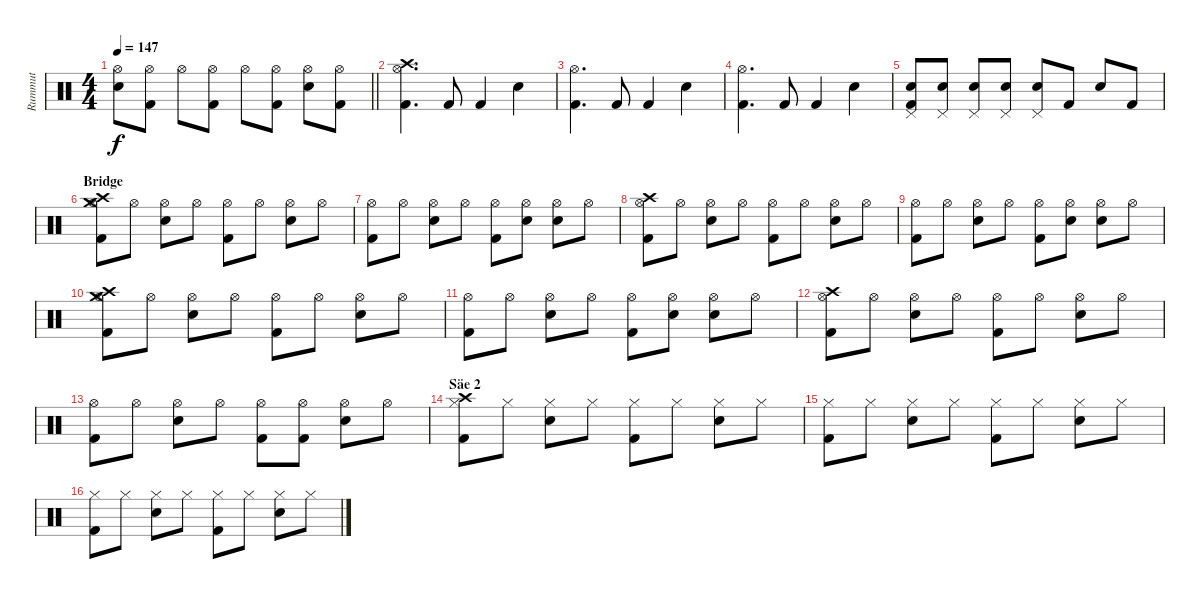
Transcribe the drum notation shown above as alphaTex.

\track ("Rummut" "Rummut") {instrument percussion}
\staff {score}
\articulation defaults
\ts (4 4)
\tempo 147
\clef neutral
\barLineRight lightlight
\ks c
("Hi-Hat (open)" "Snare (hit) 2").8{dy f} ("Hi-Hat (open)" "Kick (hit) 2").8 "Hi-Hat (open)".8 ("Hi-Hat (open)" "Kick (hit) 2").8 "Hi-Hat (open)".8 ("Hi-Hat (open)" "Kick (hit) 2").8 ("Hi-Hat (open)" "Snare (hit) 2").8 ("Hi-Hat (open)" "Kick (hit) 2").8 |
("Crash high (hit)" "Hi-Hat (open)" "Kick (hit) 2").4{d} "Kick (hit) 2".8 "Kick (hit) 2".4 "Snare (hit) 2".4 |
("Hi-Hat (open)" "Kick (hit) 2").4{d} "Kick (hit) 2".8 "Kick (hit) 2".4 "Snare (hit) 2".4 |
("Hi-Hat (open)" "Kick (hit) 2").4{d} "Kick (hit) 2".8 "Kick (hit) 2".4 "Snare (hit) 2".4 |
("Pedal Hi-Hat (hit)" "Snare (hit) 2" "Kick (hit) 2").8 ("Pedal Hi-Hat (hit)" "Snare (hit) 2").8 ("Pedal Hi-Hat (hit)" "Snare (hit) 2").8 ("Pedal Hi-Hat (hit)" "Snare (hit) 2").8 ("Pedal Hi-Hat (hit)" "Snare (hit) 2").8 "Kick (hit) 2".8 "Snare (hit) 2".8 "Kick (hit) 2".8 |
\section ("" "Bridge")
("Crash high (hit)" "Crash medium (hit)" "Hi-Hat (open)" "Kick (hit) 2").8 "Hi-Hat (open)".8 ("Hi-Hat (open)" "Snare (hit) 2").8 "Hi-Hat (open)".8 ("Hi-Hat (open)" "Kick (hit) 2").8 "Hi-Hat (open)".8 ("Hi-Hat (open)" "Snare (hit) 2").8 "Hi-Hat (open)".8 |
("Hi-Hat (open)" "Kick (hit) 2").8 "Hi-Hat (open)".8 ("Hi-Hat (open)" "Snare (hit) 2").8 "Hi-Hat (open)".8 ("Hi-Hat (open)" "Kick (hit) 2").8 ("Hi-Hat (open)" "Snare (hit) 2").8 ("Hi-Hat (open)" "Snare (hit) 2").8 "Hi-Hat (open)".8 |
("Crash high (hit)" "Hi-Hat (open)" "Kick (hit) 2").8 "Hi-Hat (open)".8 ("Hi-Hat (open)" "Snare (hit) 2").8 "Hi-Hat (open)".8 ("Hi-Hat (open)" "Kick (hit) 2").8 "Hi-Hat (open)".8 ("Hi-Hat (open)" "Snare (hit) 2").8 "Hi-Hat (open)".8 |
("Hi-Hat (open)" "Kick (hit) 2").8 "Hi-Hat (open)".8 ("Hi-Hat (open)" "Snare (hit) 2").8 "Hi-Hat (open)".8 ("Hi-Hat (open)" "Kick (hit) 2").8 ("Hi-Hat (open)" "Snare (hit) 2").8 ("Hi-Hat (open)" "Snare (hit) 2").8 "Hi-Hat (open)".8 |
("Crash high (hit)" "Crash medium (hit)" "Hi-Hat (open)" "Kick (hit) 2").8 "Hi-Hat (open)".8 ("Hi-Hat (open)" "Snare (hit) 2").8 "Hi-Hat (open)".8 ("Hi-Hat (open)" "Kick (hit) 2").8 "Hi-Hat (open)".8 ("Hi-Hat (open)" "Snare (hit) 2").8 "Hi-Hat (open)".8 |
("Hi-Hat (open)" "Kick (hit) 2").8 "Hi-Hat (open)".8 ("Hi-Hat (open)" "Snare (hit) 2").8 "Hi-Hat (open)".8 ("Hi-Hat (open)" "Kick (hit) 2").8 ("Hi-Hat (open)" "Snare (hit) 2").8 ("Hi-Hat (open)" "Snare (hit) 2").8 "Hi-Hat (open)".8 |
("Crash high (hit)" "Hi-Hat (open)" "Kick (hit) 2").8 "Hi-Hat (open)".8 ("Hi-Hat (open)" "Snare (hit) 2").8 "Hi-Hat (open)".8 ("Hi-Hat (open)" "Kick (hit) 2").8 "Hi-Hat (open)".8 ("Hi-Hat (open)" "Snare (hit) 2").8 "Hi-Hat (open)".8 |
("Hi-Hat (open)" "Kick (hit) 2").8 "Hi-Hat (open)".8 ("Hi-Hat (open)" "Snare (hit) 2").8 "Hi-Hat (open)".8 ("Hi-Hat (open)" "Kick (hit) 2").8 ("Hi-Hat (open)" "Kick (hit) 2").8 ("Hi-Hat (open)" "Snare (hit) 2").8 "Hi-Hat (open)".8 |
\section ("" "Säe 2")
("Crash high (hit)" "Hi-Hat (closed)" "Kick (hit) 2").8 "Hi-Hat (closed)".8 ("Hi-Hat (closed)" "Snare (hit) 2").8 "Hi-Hat (closed)".8 ("Hi-Hat (closed)" "Kick (hit) 2").8 "Hi-Hat (closed)".8 ("Hi-Hat (closed)" "Snare (hit) 2").8 "Hi-Hat (closed)".8 |
("Hi-Hat (closed)" "Kick (hit) 2").8 "Hi-Hat (closed)".8 ("Hi-Hat (closed)" "Snare (hit) 2").8 "Hi-Hat (closed)".8 ("Hi-Hat (closed)" "Kick (hit) 2").8 "Hi-Hat (closed)".8 ("Hi-Hat (closed)" "Snare (hit) 2").8 "Hi-Hat (closed)".8 |
("Hi-Hat (closed)" "Kick (hit) 2").8 "Hi-Hat (closed)".8 ("Hi-Hat (closed)" "Snare (hit) 2").8 "Hi-Hat (closed)".8 ("Hi-Hat (closed)" "Kick (hit) 2").8 "Hi-Hat (closed)".8 ("Hi-Hat (closed)" "Snare (hit) 2").8 "Hi-Hat (closed)".8
